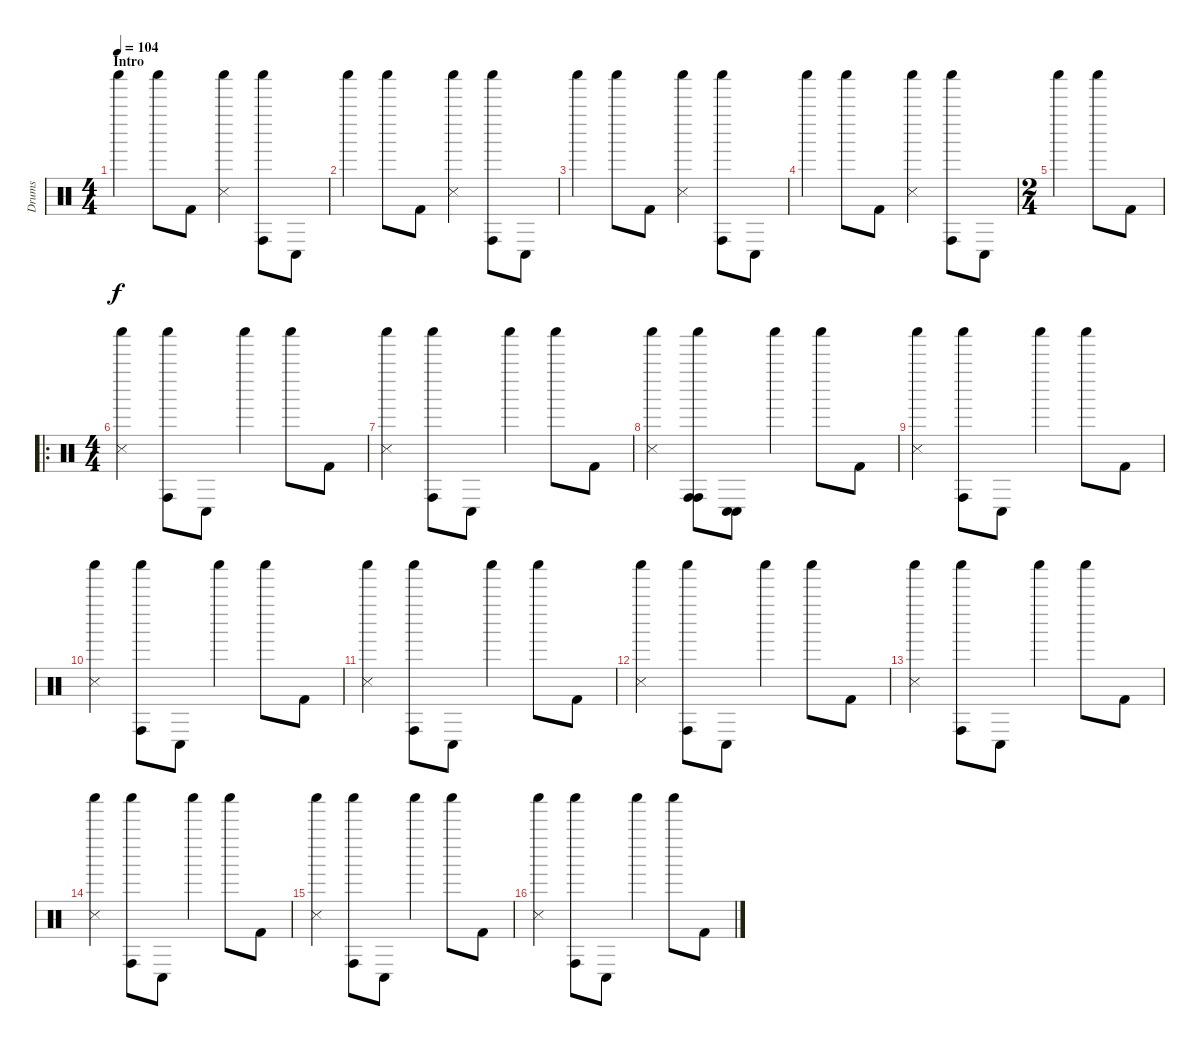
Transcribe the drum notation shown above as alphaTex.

\track ("Drums" "Drums") {instrument percussion}
\staff {score}
\articulation defaults
\ts (4 4)
\section ("" "Intro")
\tempo 104
\clef neutral
\ks c "Shaker (hit)".4{dy f} "Shaker (hit)".8 "Kick (hit) 2".8
("Shaker (hit)" "Snare (side stick) 3").4 ("Shaker (hit)" "Conga high (hit)").8 "Conga low (hit)".8 |
"Shaker (hit)".4 "Shaker (hit)".8 "Kick (hit) 2".8 ("Shaker (hit)" "Snare (side stick) 3").4 ("Shaker (hit)" "Conga high (hit)").8 "Conga low (hit)".8 |
"Shaker (hit)".4 "Shaker (hit)".8 "Kick (hit) 2".8 ("Shaker (hit)" "Snare (side stick) 3").4 ("Shaker (hit)" "Conga high (hit)").8 "Conga low (hit)".8 |
"Shaker (hit)".4 "Shaker (hit)".8 "Kick (hit) 2".8 ("Shaker (hit)" "Snare (side stick) 3").4 ("Shaker (hit)" "Conga high (hit)").8 "Conga low (hit)".8 |
\ts (2 4)
"Shaker (hit)".4 "Shaker (hit)".8 "Kick (hit) 2".8 |
\ro
\ts (4 4)
("Snare (side stick) 3" "Shaker (hit)").4 ("Shaker (hit)" "Conga high (hit)").8 "Conga low (hit)".8 "Shaker (hit)".4 "Shaker (hit)".8 "Kick (hit) 2".8 |
("Snare (side stick) 3" "Shaker (hit)").4 ("Shaker (hit)" "Conga high (hit)").8 "Conga low (hit)".8 "Shaker (hit)".4 "Shaker (hit)".8 "Kick (hit) 2".8 |
("Snare (side stick) 3" "Shaker (hit)").4 ("Shaker (hit)" "Conga high (hit)" "Conga high (hit)").8 ("Conga low (hit)" "Conga low (hit)").8 "Shaker (hit)".4 "Shaker (hit)".8 "Kick (hit) 2".8 |
("Snare (side stick) 3" "Shaker (hit)").4 ("Shaker (hit)" "Conga high (hit)").8 "Conga low (hit)".8 "Shaker (hit)".4 "Shaker (hit)".8 "Kick (hit) 2".8 |
("Snare (side stick) 3" "Shaker (hit)").4 ("Shaker (hit)" "Conga high (hit)").8 "Conga low (hit)".8 "Shaker (hit)".4 "Shaker (hit)".8 "Kick (hit) 2".8 |
("Snare (side stick) 3" "Shaker (hit)").4 ("Shaker (hit)" "Conga high (hit)").8 "Conga low (hit)".8 "Shaker (hit)".4 "Shaker (hit)".8 "Kick (hit) 2".8 |
("Snare (side stick) 3" "Shaker (hit)").4 ("Shaker (hit)" "Conga high (hit)").8 "Conga low (hit)".8 "Shaker (hit)".4 "Shaker (hit)".8 "Kick (hit) 2".8 |
("Snare (side stick) 3" "Shaker (hit)").4 ("Shaker (hit)" "Conga high (hit)").8 "Conga low (hit)".8 "Shaker (hit)".4 "Shaker (hit)".8 "Kick (hit) 2".8 |
("Snare (side stick) 3" "Shaker (hit)").4 ("Shaker (hit)" "Conga high (hit)").8 "Conga low (hit)".8 "Shaker (hit)".4 "Shaker (hit)".8 "Kick (hit) 2".8 |
("Snare (side stick) 3" "Shaker (hit)").4 ("Shaker (hit)" "Conga high (hit)").8 "Conga low (hit)".8 "Shaker (hit)".4 "Shaker (hit)".8 "Kick (hit) 2".8 |
("Snare (side stick) 3" "Shaker (hit)").4 ("Shaker (hit)" "Conga high (hit)").8 "Conga low (hit)".8 "Shaker (hit)".4 "Shaker (hit)".8 "Kick (hit) 2".8
